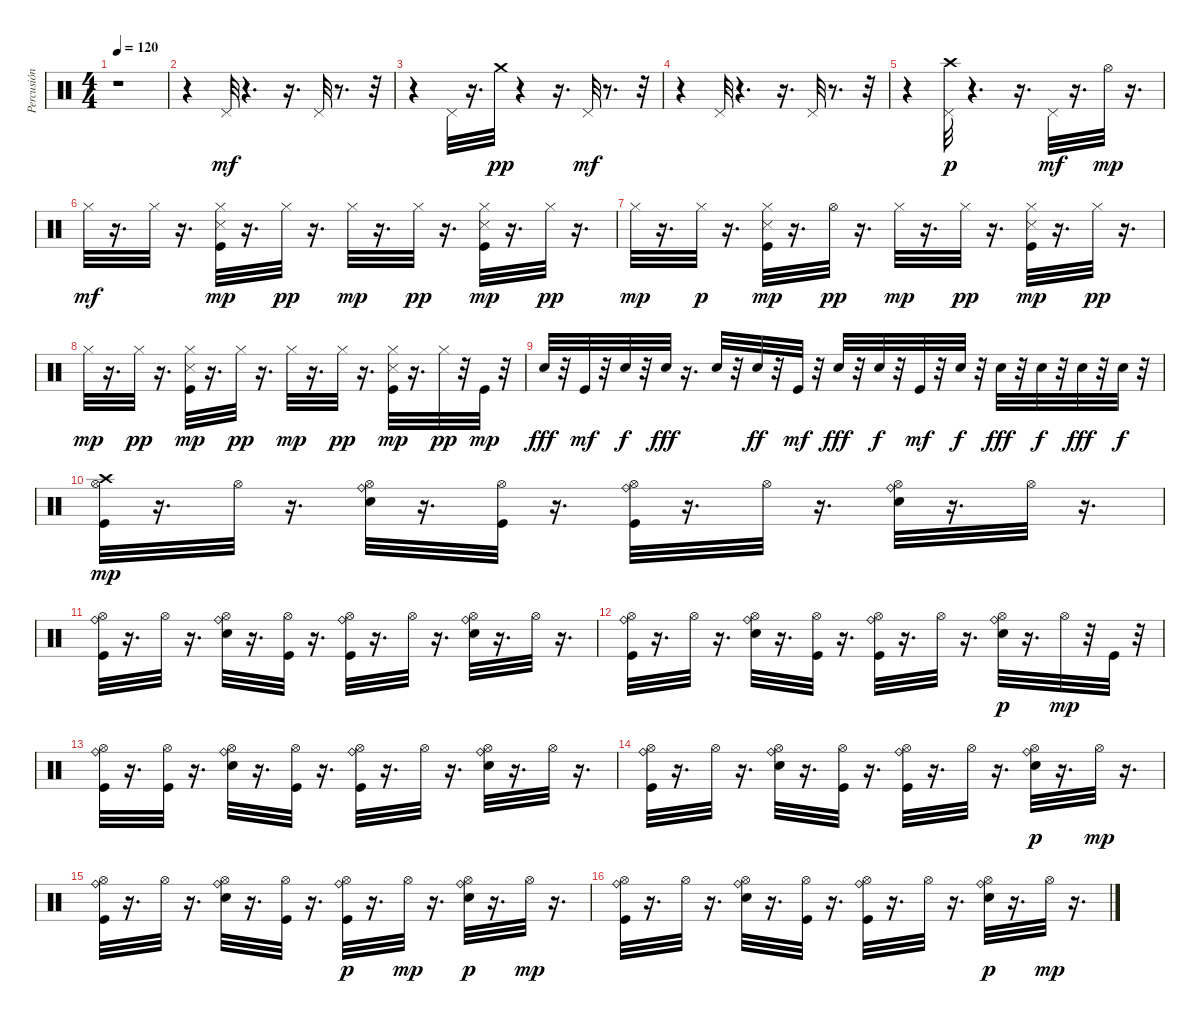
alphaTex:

\track ("Percusión" "Percusión") {instrument percussion}
\staff {score}
\articulation defaults
\ts (4 4)
\tempo 120
\clef neutral
\ks c
r.1{dy mf} |
r.4 "Pedal Hi-Hat (hit)".32 r.4{d} r.16{d} "Pedal Hi-Hat (hit)".32 r.8{d} r.32 |
r.4 "Pedal Hi-Hat (hit)".32 r.16{d} "Crash medium (hit)".32{dy pp} r.4 r.16{d} "Pedal Hi-Hat (hit)".32{dy mf} r.8{d} r.32 |
r.4 "Pedal Hi-Hat (hit)".32 r.4{d} r.16{d} "Pedal Hi-Hat (hit)".32 r.8{d} r.32 |
r.4 ("Pedal Hi-Hat (hit)" "Crash high (hit)").32{dy p} r.4{d} r.16{d} "Pedal Hi-Hat (hit)".32{dy mf} r.16{d} "Hi-Hat (open)".32{dy mp} r.16{d} |
"Hi-Hat (closed)".32{dy mf} r.16{d} "Hi-Hat (closed)".32 r.16{d} ("Kick (hit)" "Snare (side stick) 3" "Hi-Hat (closed)").32{dy mp} r.16{d} "Hi-Hat (closed)".32{dy pp} r.16{d} "Hi-Hat (closed)".32{dy mp} r.16{d} "Hi-Hat (closed)".32{dy pp} r.16{d} ("Kick (hit)" "Snare (side stick) 3" "Hi-Hat (closed)").32{dy mp} r.16{d} "Hi-Hat (closed)".32{dy pp} r.16{d} |
"Hi-Hat (closed)".32{dy mp} r.16{d} "Hi-Hat (closed)".32{dy p} r.16{d} ("Kick (hit)" "Snare (side stick) 3" "Hi-Hat (closed)").32{dy mp} r.16{d} "Hi-Hat (open)".32{dy pp} r.16{d} "Hi-Hat (closed)".32{dy mp} r.16{d} "Hi-Hat (closed)".32{dy pp} r.16{d} ("Kick (hit)" "Snare (side stick) 3" "Hi-Hat (closed)").32{dy mp} r.16{d} "Hi-Hat (closed)".32{dy pp} r.16{d} |
"Hi-Hat (closed)".32{dy mp} r.16{d} "Hi-Hat (closed)".32{dy pp} r.16{d} ("Kick (hit)" "Snare (side stick) 3" "Hi-Hat (closed)").32{dy mp} r.16{d} "Hi-Hat (closed)".32{dy pp} r.16{d} "Hi-Hat (closed)".32{dy mp} r.16{d} "Hi-Hat (closed)".32{dy pp} r.16{d} ("Kick (hit)" "Snare (side stick) 3" "Hi-Hat (closed)").32{dy mp} r.16{d} "Hi-Hat (closed)".32{dy pp} r.32 "Kick (hit)".32{dy mp} r.32 |
"Electric Snare (hit)".32{dy fff} r.32 "Kick (hit)".32{dy mf} r.32 "Electric Snare (hit)".32{dy f} r.32 "Electric Snare (hit)".32{dy fff} r.16{d} "Electric Snare (hit)".32 r.32 "Electric Snare (hit)".32{dy ff} r.32 "Kick (hit)".32{dy mf} r.32 "Electric Snare (hit)".32{dy fff} r.32 "Electric Snare (hit)".32{dy f} r.32 "Kick (hit)".32{dy mf} r.32 "Electric Snare (hit)".32{dy f} r.32 "Electric Snare (hit)".32{dy fff} r.32 "Electric Snare (hit)".32{dy f} r.32 "Electric Snare (hit)".32{dy fff} r.32 "Electric Snare (hit)".32{dy f} r.32 |
("Kick (hit)" "Hi-Hat (open)" "Crash high (hit)").32{dy mp} r.16{d} "Hi-Hat (open)".32 r.16{d} ("Electric Snare (hit)" "Hi-Hat (open)" "Ride (bell)").32 r.16{d} ("Kick (hit)" "Hi-Hat (open)").32 r.16{d} ("Kick (hit)" "Hi-Hat (open)" "Ride (bell)").32 r.16{d} "Hi-Hat (open)".32 r.16{d} ("Electric Snare (hit)" "Hi-Hat (open)" "Ride (bell)").32 r.16{d} "Hi-Hat (open)".32 r.16{d} |
("Kick (hit)" "Hi-Hat (open)" "Ride (bell)").32 r.16{d} "Hi-Hat (open)".32 r.16{d} ("Electric Snare (hit)" "Hi-Hat (open)" "Ride (bell)").32 r.16{d} ("Kick (hit)" "Hi-Hat (open)").32 r.16{d} ("Kick (hit)" "Hi-Hat (open)" "Ride (bell)").32 r.16{d} "Hi-Hat (open)".32 r.16{d} ("Electric Snare (hit)" "Hi-Hat (open)" "Ride (bell)").32 r.16{d} "Hi-Hat (open)".32 r.16{d} |
("Kick (hit)" "Hi-Hat (open)" "Ride (bell)").32 r.16{d} "Hi-Hat (open)".32 r.16{d} ("Electric Snare (hit)" "Hi-Hat (open)" "Ride (bell)").32 r.16{d} ("Kick (hit)" "Hi-Hat (open)").32 r.16{d} ("Kick (hit)" "Hi-Hat (open)" "Ride (bell)").32 r.16{d} "Hi-Hat (open)".32 r.16{d} ("Electric Snare (hit)" "Hi-Hat (open)" "Ride (bell)").32{dy p} r.16{d} "Hi-Hat (open)".32{dy mp} r.32 "Kick (hit)".32 r.32 |
("Kick (hit)" "Hi-Hat (open)" "Ride (bell)").32 r.16{d} ("Kick (hit)" "Hi-Hat (open)").32 r.16{d} ("Electric Snare (hit)" "Hi-Hat (open)" "Ride (bell)").32 r.16{d} ("Kick (hit)" "Hi-Hat (open)").32 r.16{d} ("Kick (hit)" "Hi-Hat (open)" "Ride (bell)").32 r.16{d} "Hi-Hat (open)".32 r.16{d} ("Electric Snare (hit)" "Hi-Hat (open)" "Ride (bell)").32 r.16{d} "Hi-Hat (open)".32 r.16{d} |
("Kick (hit)" "Hi-Hat (open)" "Ride (bell)").32 r.16{d} "Hi-Hat (open)".32 r.16{d} ("Electric Snare (hit)" "Hi-Hat (open)" "Ride (bell)").32 r.16{d} ("Kick (hit)" "Hi-Hat (open)").32 r.16{d} ("Kick (hit)" "Hi-Hat (open)" "Ride (bell)").32 r.16{d} "Hi-Hat (open)".32 r.16{d} ("Electric Snare (hit)" "Hi-Hat (open)" "Ride (bell)").32{dy p} r.16{d} "Hi-Hat (open)".32{dy mp} r.16{d} |
("Kick (hit)" "Hi-Hat (open)" "Ride (bell)").32 r.16{d} "Hi-Hat (open)".32 r.16{d} ("Electric Snare (hit)" "Hi-Hat (open)" "Ride (bell)").32 r.16{d} ("Kick (hit)" "Hi-Hat (open)").32 r.16{d} ("Kick (hit)" "Hi-Hat (open)" "Ride (bell)").32{dy p} r.16{d} "Hi-Hat (open)".32{dy mp} r.16{d} ("Electric Snare (hit)" "Hi-Hat (open)" "Ride (bell)").32{dy p} r.16{d} "Hi-Hat (open)".32{dy mp} r.16{d} |
("Kick (hit)" "Hi-Hat (open)" "Ride (bell)").32 r.16{d} "Hi-Hat (open)".32 r.16{d} ("Electric Snare (hit)" "Hi-Hat (open)" "Ride (bell)").32 r.16{d} ("Kick (hit)" "Hi-Hat (open)").32 r.16{d} ("Kick (hit)" "Hi-Hat (open)" "Ride (bell)").32 r.16{d} "Hi-Hat (open)".32 r.16{d} ("Electric Snare (hit)" "Hi-Hat (open)" "Ride (bell)").32{dy p} r.16{d} "Hi-Hat (open)".32{dy mp} r.16{d}
